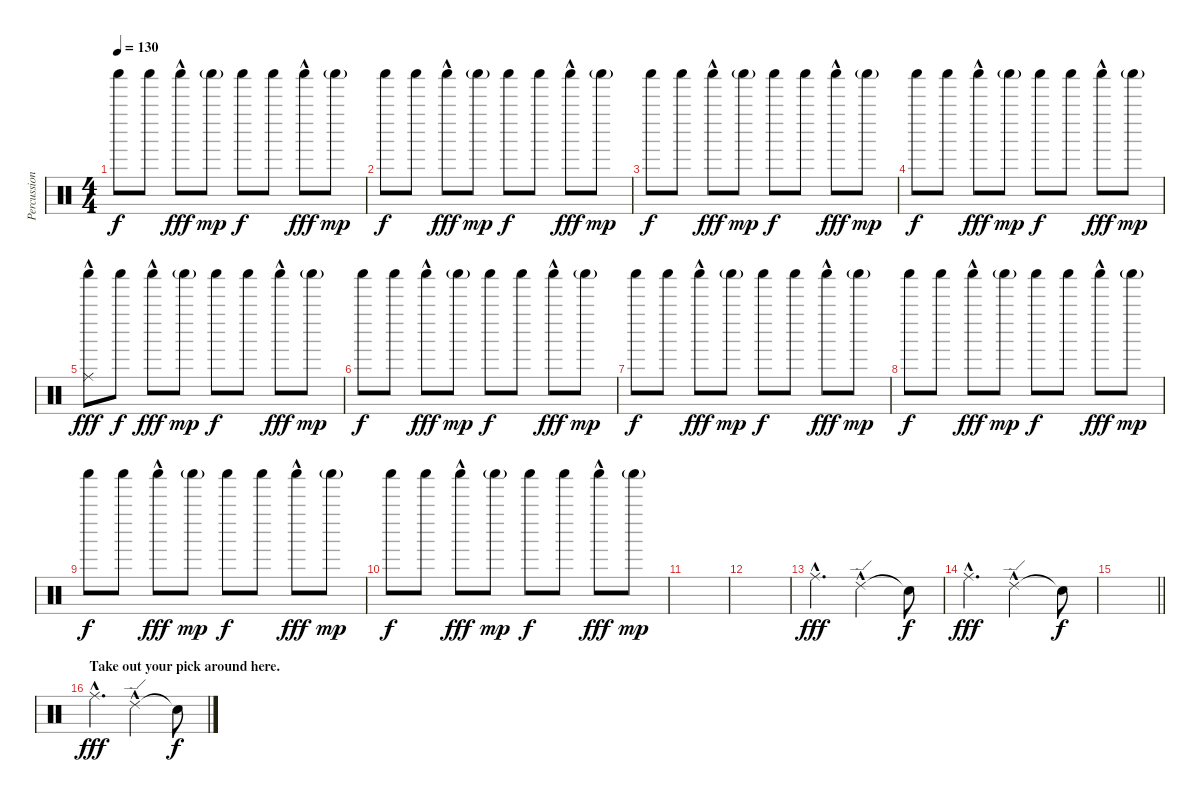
\track ("Percussion" "Percussion") {instrument percussion}
\staff {score}
\articulation defaults
\ts (4 4)
\tempo 130
\clef neutral
\ks c "Shaker (hit)".8{dy f} "Shaker (hit)".8 "Shaker (hit)"{hac}.8{dy fff} "Shaker (hit)"{g}.8{dy mp} "Shaker (hit)".8{dy f} "Shaker (hit)".8 "Shaker (hit)"{hac}.8{dy fff} "Shaker (hit)"{g}.8{dy mp}
|
"Shaker (hit)".8{dy f} "Shaker (hit)".8 "Shaker (hit)"{hac}.8{dy fff} "Shaker (hit)"{g}.8{dy mp} "Shaker (hit)".8{dy f} "Shaker (hit)".8 "Shaker (hit)"{hac}.8{dy fff} "Shaker (hit)"{g}.8{dy mp} |
"Shaker (hit)".8{dy f} "Shaker (hit)".8 "Shaker (hit)"{hac}.8{dy fff} "Shaker (hit)"{g}.8{dy mp} "Shaker (hit)".8{dy f} "Shaker (hit)".8 "Shaker (hit)"{hac}.8{dy fff} "Shaker (hit)"{g}.8{dy mp} |
"Shaker (hit)".8{dy f} "Shaker (hit)".8 "Shaker (hit)"{hac}.8{dy fff} "Shaker (hit)"{g}.8{dy mp} "Shaker (hit)".8{dy f} "Shaker (hit)".8 "Shaker (hit)"{hac}.8{dy fff} "Shaker (hit)"{g}.8{dy mp} |
("Ride (middle)"{hac} "Shaker (hit)").8{dy fff} "Shaker (hit)".8{dy f} "Shaker (hit)"{hac}.8{dy fff} "Shaker (hit)"{g}.8{dy mp} "Shaker (hit)".8{dy f} "Shaker (hit)".8 "Shaker (hit)"{hac}.8{dy fff} "Shaker (hit)"{g}.8{dy mp} |
"Shaker (hit)".8{dy f} "Shaker (hit)".8 "Shaker (hit)"{hac}.8{dy fff} "Shaker (hit)"{g}.8{dy mp} "Shaker (hit)".8{dy f} "Shaker (hit)".8 "Shaker (hit)"{hac}.8{dy fff} "Shaker (hit)"{g}.8{dy mp} |
"Shaker (hit)".8{dy f} "Shaker (hit)".8 "Shaker (hit)"{hac}.8{dy fff} "Shaker (hit)"{g}.8{dy mp} "Shaker (hit)".8{dy f} "Shaker (hit)".8 "Shaker (hit)"{hac}.8{dy fff} "Shaker (hit)"{g}.8{dy mp} |
"Shaker (hit)".8{dy f} "Shaker (hit)".8 "Shaker (hit)"{hac}.8{dy fff} "Shaker (hit)"{g}.8{dy mp} "Shaker (hit)".8{dy f} "Shaker (hit)".8 "Shaker (hit)"{hac}.8{dy fff} "Shaker (hit)"{g}.8{dy mp} |
"Shaker (hit)".8{dy f} "Shaker (hit)".8 "Shaker (hit)"{hac}.8{dy fff} "Shaker (hit)"{g}.8{dy mp} "Shaker (hit)".8{dy f} "Shaker (hit)".8 "Shaker (hit)"{hac}.8{dy fff} "Shaker (hit)"{g}.8{dy mp} |
"Shaker (hit)".8{dy f} "Shaker (hit)".8 "Shaker (hit)"{hac}.8{dy fff} "Shaker (hit)"{g}.8{dy mp} "Shaker (hit)".8{dy f} "Shaker (hit)".8 "Shaker (hit)"{hac}.8{dy fff} "Shaker (hit)"{g}.8{dy mp} |
|
|
"Ride (middle)"{hac}.4{d dy fff} "Ride (edge) 2"{hac}.2 "Snare (hit)"{t}.8{dy f} |
"Ride (middle)"{hac}.4{d dy fff} "Ride (edge) 2"{hac}.2 "Snare (hit)"{t}.8{dy f} |
\barLineRight lightlight
|
\section ("" "Take out your pick around here.")
"Ride (middle)"{hac}.4{d dy fff} "Ride (edge) 2"{hac}.2 "Snare (hit)"{t}.8{dy f}
